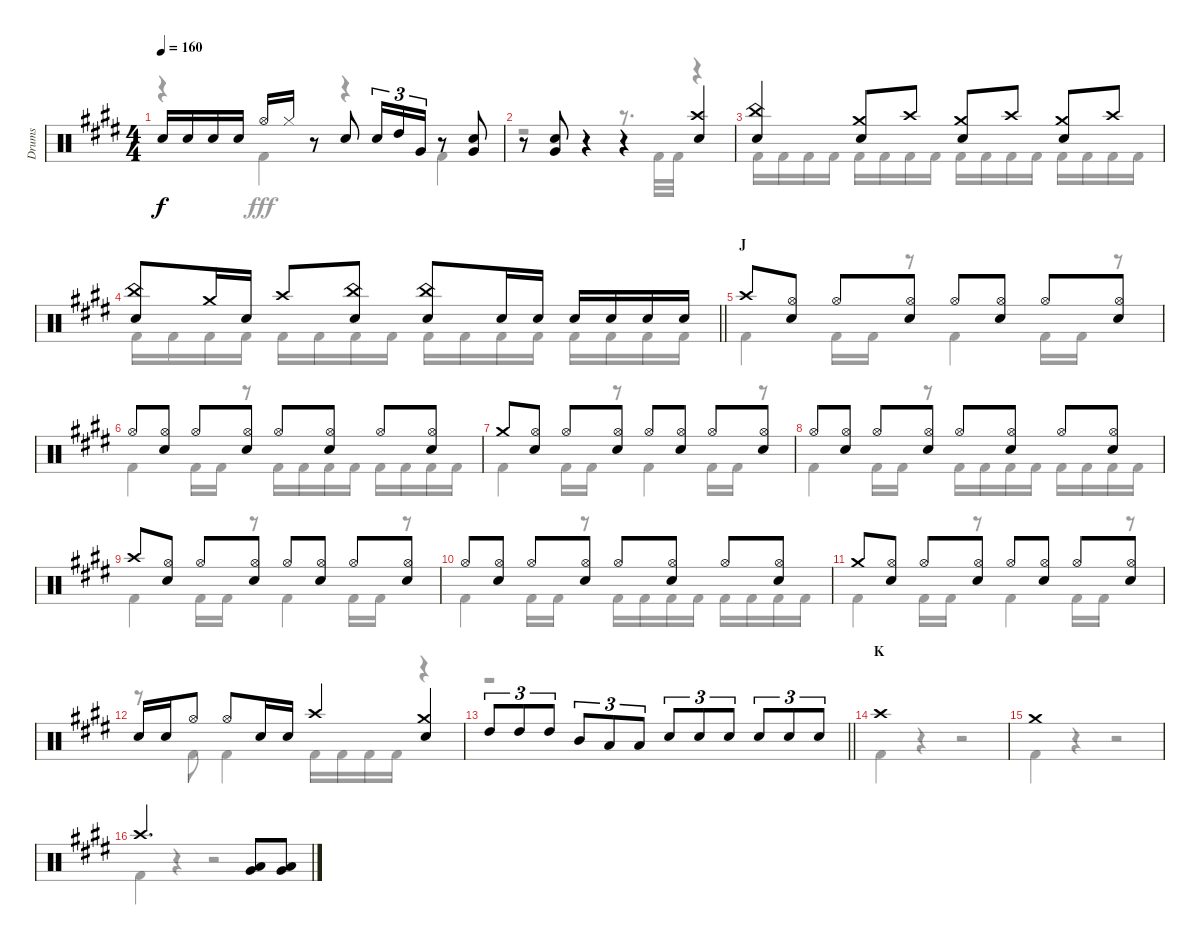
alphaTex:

\track ("Drums" "Drums") {instrument percussion}
\staff {score}
\articulation defaults
\voice
\ts (4 4)
\tempo 160
\clef neutral
\ks e "Snare (hit) 2".16{dy f} "Snare (hit) 2".16 "Snare (hit) 2".16 "Snare (hit) 2".16 "Hi-Hat (open)".16 "Hi-Hat (closed)".16
r.8 "Snare (hit) 2".8 "Snare (hit) 2".16{tu (3 2)} "High Tom (hit)".16{tu (3 2)} "Very Low Tom (hit)".16{tu (3 2)} r.8 ("Snare (hit) 2" "Very Low Tom (hit)").8 |
r.8 ("Snare (hit) 2" "Very Low Tom (hit)").8 r.4 r.4 ("Crash high (hit)" "Snare (hit) 2").4 |
("China (hit)" "Snare (hit) 2").4 ("Crash medium (hit)" "Snare (hit) 2").8 "Crash high (hit)".8 ("Crash medium (hit)" "Snare (hit) 2").8 "Crash high (hit)".8 ("Crash medium (hit)" "Snare (hit) 2").8 "Crash high (hit)".8 |
\barLineRight lightlight
("China (hit)" "Snare (hit) 2").8 "Crash medium (hit)".16 "Snare (hit) 2".16 "Crash high (hit)".8 ("China (hit)" "Snare (hit) 2").8 ("China (hit)" "Snare (hit) 2").8 "Snare (hit) 2".16 "Snare (hit) 2".16 "Snare (hit) 2".16 "Snare (hit) 2".16 "Snare (hit) 2".16 "Snare (hit) 2".16 |
\section ("" "J")
"Crash high (hit)".8 ("Hi-Hat (open)" "Snare (hit) 2").8 "Hi-Hat (open)".8 ("Hi-Hat (open)" "Snare (hit) 2").8 "Hi-Hat (open)".8 ("Hi-Hat (open)" "Snare (hit) 2").8 "Hi-Hat (open)".8 ("Hi-Hat (open)" "Snare (hit) 2").8 |
"Hi-Hat (open)".8 ("Hi-Hat (open)" "Snare (hit) 2").8 "Hi-Hat (open)".8 ("Hi-Hat (open)" "Snare (hit) 2").8 "Hi-Hat (open)".8 ("Hi-Hat (open)" "Snare (hit) 2").8 "Hi-Hat (open)".8 ("Hi-Hat (open)" "Snare (hit) 2").8 |
"Crash medium (hit)".8 ("Hi-Hat (open)" "Snare (hit) 2").8 "Hi-Hat (open)".8 ("Hi-Hat (open)" "Snare (hit) 2").8 "Hi-Hat (open)".8 ("Hi-Hat (open)" "Snare (hit) 2").8 "Hi-Hat (open)".8 ("Hi-Hat (open)" "Snare (hit) 2").8 |
"Hi-Hat (open)".8 ("Hi-Hat (open)" "Snare (hit) 2").8 "Hi-Hat (open)".8 ("Hi-Hat (open)" "Snare (hit) 2").8 "Hi-Hat (open)".8 ("Hi-Hat (open)" "Snare (hit) 2").8 "Hi-Hat (open)".8 ("Hi-Hat (open)" "Snare (hit) 2").8 |
"Crash high (hit)".8 ("Hi-Hat (open)" "Snare (hit) 2").8 "Hi-Hat (open)".8 ("Hi-Hat (open)" "Snare (hit) 2").8 "Hi-Hat (open)".8 ("Hi-Hat (open)" "Snare (hit) 2").8 "Hi-Hat (open)".8 ("Hi-Hat (open)" "Snare (hit) 2").8 |
"Hi-Hat (open)".8 ("Hi-Hat (open)" "Snare (hit) 2").8 "Hi-Hat (open)".8 ("Hi-Hat (open)" "Snare (hit) 2").8 "Hi-Hat (open)".8 ("Hi-Hat (open)" "Snare (hit) 2").8 "Hi-Hat (open)".8 ("Hi-Hat (open)" "Snare (hit) 2").8 |
"Crash medium (hit)".8 ("Hi-Hat (open)" "Snare (hit) 2").8 "Hi-Hat (open)".8 ("Hi-Hat (open)" "Snare (hit) 2").8 "Hi-Hat (open)".8 ("Hi-Hat (open)" "Snare (hit) 2").8 "Hi-Hat (open)".8 ("Hi-Hat (open)" "Snare (hit) 2").8 |
"Snare (hit) 2".16 "Snare (hit) 2".16 "Hi-Hat (open)".8 "Hi-Hat (open)".8 "Snare (hit) 2".16 "Snare (hit) 2".16 "Crash high (hit)".4 ("Crash medium (hit)" "Snare (hit) 2").4 |
\barLineRight lightlight "High Tom (hit)".8{tu (3 2)} "High Tom (hit)".8{tu (3 2)} "High Tom (hit)".8{tu (3 2)} "Mid Tom (hit)".8{tu (3 2)} "Low Tom (hit)".8{tu (3 2)} "Low Tom (hit)".8{tu (3 2)} "Snare (hit) 2".8{tu (3 2)} "Snare (hit) 2".8{tu (3 2)} "Snare (hit) 2".8{tu (3 2)} "Snare (hit) 2".8{tu (3 2)} "Snare (hit) 2".8{tu (3 2)} "Snare (hit) 2".8{tu (3 2)}
|
\section ("" "K")
"Crash high (hit)".1 |
"Crash medium (hit)".1 |
"Crash high (hit)".2{d} ("Low Tom (hit)" "Very Low Tom (hit)").8 ("Low Tom (hit)" "Very Low Tom (hit)").8
\voice
\clef neutral
\ottava regular
\simile none
\ks e
r.4{dy fff} "Kick (hit) 2".4 r.4 "Kick (hit) 2".4 |
r.2 r.8{d} "Kick (hit) 2".32 "Kick (hit) 2".32 r.4 |
"Kick (hit) 2".16 "Kick (hit) 2".16 "Kick (hit) 2".16 "Kick (hit) 2".16 "Kick (hit) 2".16 "Kick (hit) 2".16 "Kick (hit) 2".16 "Kick (hit) 2".16 "Kick (hit) 2".16 "Kick (hit) 2".16 "Kick (hit) 2".16 "Kick (hit) 2".16 "Kick (hit) 2".16 "Kick (hit) 2".16 "Kick (hit) 2".16 "Kick (hit) 2".16 |
\barLineRight lightlight "Kick (hit) 2".16 "Kick (hit) 2".16 "Kick (hit) 2".16 "Kick (hit) 2".16 "Kick (hit) 2".16 "Kick (hit) 2".16 "Kick (hit) 2".16 "Kick (hit) 2".16 "Kick (hit) 2".16 "Kick (hit) 2".16 "Kick (hit) 2".16 "Kick (hit) 2".16 "Kick (hit) 2".16 "Kick (hit) 2".16 "Kick (hit) 2".16 "Kick (hit) 2".16
|
"Kick (hit) 2".4 "Kick (hit) 2".16 "Kick (hit) 2".16 r.8 "Kick (hit) 2".4 "Kick (hit) 2".16 "Kick (hit) 2".16 r.8 |
"Kick (hit) 2".4 "Kick (hit) 2".16 "Kick (hit) 2".16 r.8 "Kick (hit) 2".16 "Kick (hit) 2".16 "Kick (hit) 2".16 "Kick (hit) 2".16 "Kick (hit) 2".16 "Kick (hit) 2".16 "Kick (hit) 2".16 "Kick (hit) 2".16 |
"Kick (hit) 2".4 "Kick (hit) 2".16 "Kick (hit) 2".16 r.8 "Kick (hit) 2".4 "Kick (hit) 2".16 "Kick (hit) 2".16 r.8 |
"Kick (hit) 2".4 "Kick (hit) 2".16 "Kick (hit) 2".16 r.8 "Kick (hit) 2".16 "Kick (hit) 2".16 "Kick (hit) 2".16 "Kick (hit) 2".16 "Kick (hit) 2".16 "Kick (hit) 2".16 "Kick (hit) 2".16 "Kick (hit) 2".16 |
"Kick (hit) 2".4 "Kick (hit) 2".16 "Kick (hit) 2".16 r.8 "Kick (hit) 2".4 "Kick (hit) 2".16 "Kick (hit) 2".16 r.8 |
"Kick (hit) 2".4 "Kick (hit) 2".16 "Kick (hit) 2".16 r.8 "Kick (hit) 2".16 "Kick (hit) 2".16 "Kick (hit) 2".16 "Kick (hit) 2".16 "Kick (hit) 2".16 "Kick (hit) 2".16 "Kick (hit) 2".16 "Kick (hit) 2".16 |
"Kick (hit) 2".4 "Kick (hit) 2".16 "Kick (hit) 2".16 r.8 "Kick (hit) 2".4 "Kick (hit) 2".16 "Kick (hit) 2".16 r.8 |
r.8 "Kick (hit) 2".8 "Kick (hit) 2".4 "Kick (hit) 2".16 "Kick (hit) 2".16 "Kick (hit) 2".16 "Kick (hit) 2".16 r.4 |
\barLineRight lightlight
r.1 |
"Kick (hit) 2".4 r.4 r.2 |
"Kick (hit) 2".4 r.4 r.2 |
"Kick (hit) 2".4 r.4 r.2
